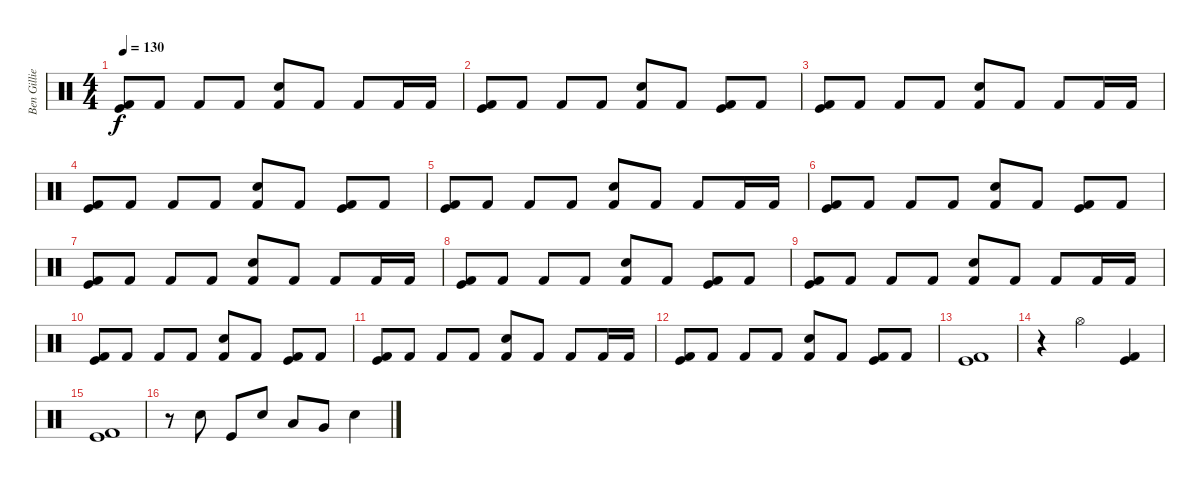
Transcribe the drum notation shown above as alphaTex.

\track ("Ben Gillies (Drums)" "Ben Gillie") {instrument percussion}
\staff {score}
\articulation defaults
\ts (4 4)
\tempo 130
\clef neutral
\ks c
("Kick (hit) 2" "Kick (hit)").8{dy f} "Kick (hit) 2".8 "Kick (hit) 2".8 "Kick (hit) 2".8 ("Electric Snare (hit)" "Kick (hit) 2").8 "Kick (hit) 2".8 "Kick (hit) 2".8 "Kick (hit) 2".16 "Kick (hit) 2".16 |
("Kick (hit) 2" "Kick (hit)").8 "Kick (hit) 2".8 "Kick (hit) 2".8 "Kick (hit) 2".8 ("Electric Snare (hit)" "Kick (hit) 2").8 "Kick (hit) 2".8 ("Kick (hit) 2" "Kick (hit)").8 "Kick (hit) 2".8 |
("Kick (hit) 2" "Kick (hit)").8 "Kick (hit) 2".8 "Kick (hit) 2".8 "Kick (hit) 2".8 ("Electric Snare (hit)" "Kick (hit) 2").8 "Kick (hit) 2".8 "Kick (hit) 2".8 "Kick (hit) 2".16 "Kick (hit) 2".16 |
("Kick (hit) 2" "Kick (hit)").8 "Kick (hit) 2".8 "Kick (hit) 2".8 "Kick (hit) 2".8 ("Electric Snare (hit)" "Kick (hit) 2").8 "Kick (hit) 2".8 ("Kick (hit) 2" "Kick (hit)").8 "Kick (hit) 2".8 |
("Kick (hit) 2" "Kick (hit)").8 "Kick (hit) 2".8 "Kick (hit) 2".8 "Kick (hit) 2".8 ("Electric Snare (hit)" "Kick (hit) 2").8 "Kick (hit) 2".8 "Kick (hit) 2".8 "Kick (hit) 2".16 "Kick (hit) 2".16 |
("Kick (hit) 2" "Kick (hit)").8 "Kick (hit) 2".8 "Kick (hit) 2".8 "Kick (hit) 2".8 ("Electric Snare (hit)" "Kick (hit) 2").8 "Kick (hit) 2".8 ("Kick (hit) 2" "Kick (hit)").8 "Kick (hit) 2".8 |
("Kick (hit) 2" "Kick (hit)").8 "Kick (hit) 2".8 "Kick (hit) 2".8 "Kick (hit) 2".8 ("Electric Snare (hit)" "Kick (hit) 2").8 "Kick (hit) 2".8 "Kick (hit) 2".8 "Kick (hit) 2".16 "Kick (hit) 2".16 |
("Kick (hit) 2" "Kick (hit)").8 "Kick (hit) 2".8 "Kick (hit) 2".8 "Kick (hit) 2".8 ("Electric Snare (hit)" "Kick (hit) 2").8 "Kick (hit) 2".8 ("Kick (hit) 2" "Kick (hit)").8 "Kick (hit) 2".8 |
("Kick (hit) 2" "Kick (hit)").8 "Kick (hit) 2".8 "Kick (hit) 2".8 "Kick (hit) 2".8 ("Electric Snare (hit)" "Kick (hit) 2").8 "Kick (hit) 2".8 "Kick (hit) 2".8 "Kick (hit) 2".16 "Kick (hit) 2".16 |
("Kick (hit) 2" "Kick (hit)").8 "Kick (hit) 2".8 "Kick (hit) 2".8 "Kick (hit) 2".8 ("Electric Snare (hit)" "Kick (hit) 2").8 "Kick (hit) 2".8 ("Kick (hit) 2" "Kick (hit)").8 "Kick (hit) 2".8 |
("Kick (hit) 2" "Kick (hit)").8 "Kick (hit) 2".8 "Kick (hit) 2".8 "Kick (hit) 2".8 ("Electric Snare (hit)" "Kick (hit) 2").8 "Kick (hit) 2".8 "Kick (hit) 2".8 "Kick (hit) 2".16 "Kick (hit) 2".16 |
("Kick (hit) 2" "Kick (hit)").8 "Kick (hit) 2".8 "Kick (hit) 2".8 "Kick (hit) 2".8 ("Electric Snare (hit)" "Kick (hit) 2").8 "Kick (hit) 2".8 ("Kick (hit) 2" "Kick (hit)").8 "Kick (hit) 2".8 |
("Kick (hit) 2" "Kick (hit)").1 |
r.4 "Hi-Hat (open)".2 ("Kick (hit) 2" "Kick (hit)").4 |
("Kick (hit) 2" "Kick (hit)").1 |
r.8 "Electric Snare (hit)".8 "Kick (hit)".8 "Electric Snare (hit)".8 "Low Tom (hit)".8 "Very Low Tom (hit)".8 "Snare (hit) 2".4
